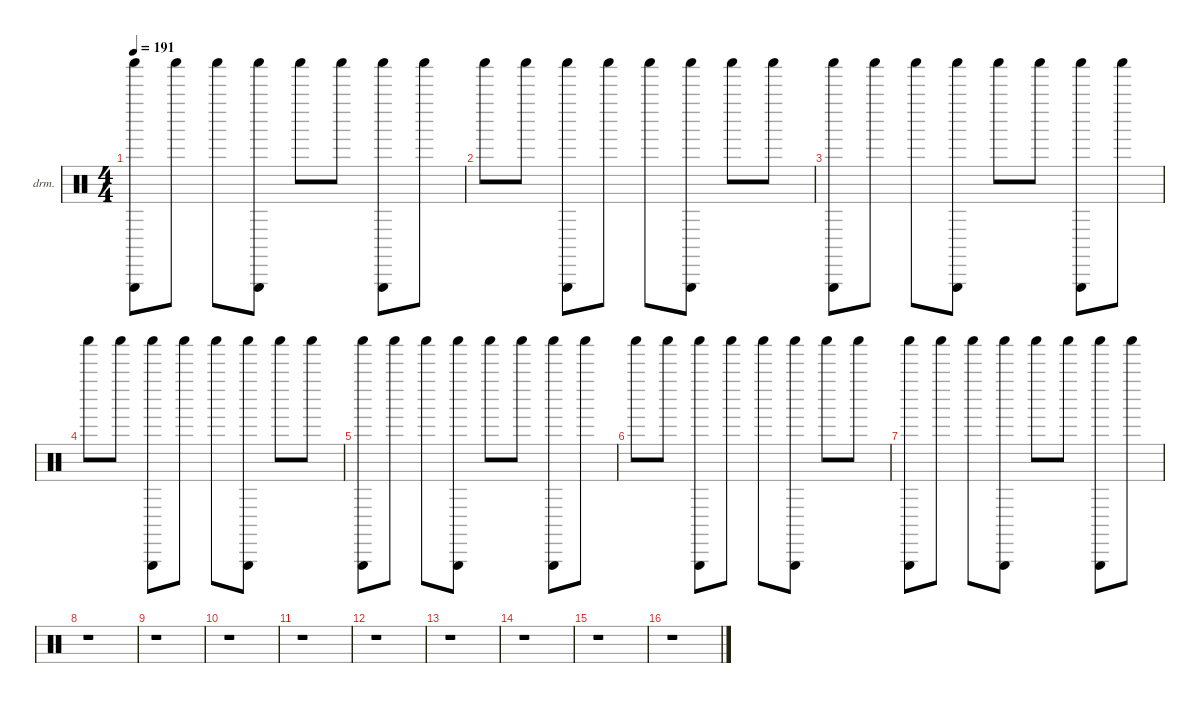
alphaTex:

\defaultSystemsLayout 4
\hideDynamics
\bracketExtendMode nobrackets
\firstSystemTrackNameOrientation horizontal
\otherSystemsTrackNameOrientation horizontal
\track ("Percussion" "drm.") {instrument percussion}
\staff {score}
\articulation defaults
\ts (4 4)
\tempo 191
\clef neutral
\ks c
("Shaker (hit)" "Triangle (hit)").8{dy mp beam Down} "Shaker (hit)".8{beam Down} "Shaker (hit)".8{dy fff beam Down} ("Shaker (hit)" "Triangle (hit)").8{dy mp beam Down} "Shaker (hit)".8{beam Down} "Shaker (hit)".8{beam Down} ("Shaker (hit)" "Triangle (hit)").8{dy fff beam Down} "Shaker (hit)".8{dy mp beam Down} |
"Shaker (hit)".8{beam Down} "Shaker (hit)".8{beam Down} ("Shaker (hit)" "Triangle (hit)").8{dy fff beam Down} "Shaker (hit)".8{dy mp beam Down} "Shaker (hit)".8{beam Down} ("Shaker (hit)" "Triangle (hit)").8{beam Down} "Shaker (hit)".8{dy fff beam Down} "Shaker (hit)".8{dy mp beam Down} |
("Shaker (hit)" "Triangle (hit)").8{beam Down} "Shaker (hit)".8{beam Down} "Shaker (hit)".8{dy fff beam Down} ("Shaker (hit)" "Triangle (hit)").8{dy mp beam Down} "Shaker (hit)".8{beam Down} "Shaker (hit)".8{beam Down} ("Shaker (hit)" "Triangle (hit)").8{dy fff beam Down} "Shaker (hit)".8{dy mp beam Down} |
"Shaker (hit)".8{beam Down} "Shaker (hit)".8{beam Down} ("Shaker (hit)" "Triangle (hit)").8{dy fff beam Down} "Shaker (hit)".8{dy mp beam Down} "Shaker (hit)".8{beam Down} ("Shaker (hit)" "Triangle (hit)").8{beam Down} "Shaker (hit)".8{dy fff beam Down} "Shaker (hit)".8{dy mp beam Down} |
("Shaker (hit)" "Triangle (hit)").8{beam Down} "Shaker (hit)".8{beam Down} "Shaker (hit)".8{dy fff beam Down} ("Shaker (hit)" "Triangle (hit)").8{dy mp beam Down} "Shaker (hit)".8{beam Down} "Shaker (hit)".8{beam Down} ("Shaker (hit)" "Triangle (hit)").8{dy fff beam Down} "Shaker (hit)".8{dy mp beam Down} |
"Shaker (hit)".8{beam Down} "Shaker (hit)".8{beam Down} ("Shaker (hit)" "Triangle (hit)").8{dy fff beam Down} "Shaker (hit)".8{dy mp beam Down} "Shaker (hit)".8{beam Down} ("Shaker (hit)" "Triangle (hit)").8{beam Down} "Shaker (hit)".8{dy fff beam Down} "Shaker (hit)".8{dy mp beam Down} |
("Shaker (hit)" "Triangle (hit)").8{beam Down} "Shaker (hit)".8{beam Down} "Shaker (hit)".8{dy fff beam Down} ("Shaker (hit)" "Triangle (hit)").8{dy mp beam Down} "Shaker (hit)".8{beam Down} "Shaker (hit)".8{beam Down} ("Shaker (hit)" "Triangle (hit)").8{dy fff beam Down} "Shaker (hit)".8{dy mp beam Down} |
r.1{beam Down} |
r.1{beam Down} |
r.1{beam Down} |
r.1{beam Down} |
r.1{beam Down} |
r.1{beam Down} |
r.1{beam Down} |
r.1{beam Down} |
r.1{beam Down}
